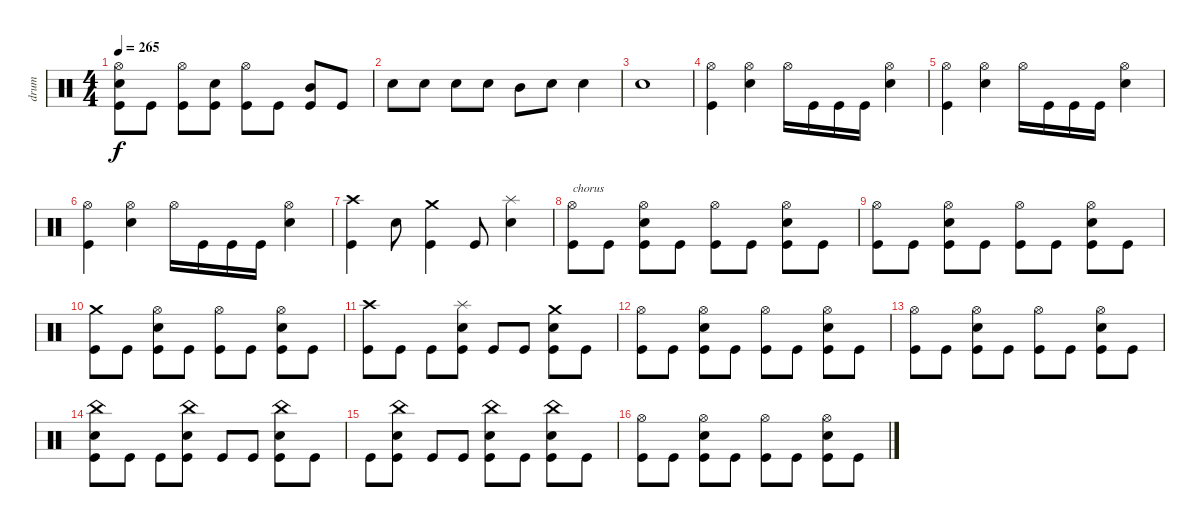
\track ("drum" "drum") {instrument percussion}
\staff {score}
\articulation defaults
\ts (4 4)
\tempo 265
\clef neutral
\ks c
("Kick (hit)" "Electric Snare (hit)" "Hi-Hat (open)").8{dy f} "Kick (hit)".8 ("Kick (hit)" "Hi-Hat (open)").8 ("Kick (hit)" "Electric Snare (hit)").8 ("Kick (hit)" "Hi-Hat (open)").8 "Kick (hit)".8 ("Kick (hit)" "Mid Tom (hit)").8 "Kick (hit)".8 |
"Electric Snare (hit)".8 "Electric Snare (hit)".8 "Electric Snare (hit)".8 "Electric Snare (hit)".8 "Mid Tom (hit)".8 "Electric Snare (hit)".8 "Electric Snare (hit)".4 |
"Electric Snare (hit)".1 |
("Kick (hit)" "Hi-Hat (open)").4 ("Electric Snare (hit)" "Hi-Hat (open)").4 "Hi-Hat (open)".16 "Kick (hit)".16 "Kick (hit)".16 "Kick (hit)".16 ("Electric Snare (hit)" "Hi-Hat (open)").4 |
("Kick (hit)" "Hi-Hat (open)").4 ("Electric Snare (hit)" "Hi-Hat (open)").4 "Hi-Hat (open)".16 "Kick (hit)".16 "Kick (hit)".16 "Kick (hit)".16 ("Electric Snare (hit)" "Hi-Hat (open)").4 |
("Kick (hit)" "Hi-Hat (open)").4 ("Electric Snare (hit)" "Hi-Hat (open)").4 "Hi-Hat (open)".16 "Kick (hit)".16 "Kick (hit)".16 "Kick (hit)".16 ("Electric Snare (hit)" "Hi-Hat (open)").4 |
("Kick (hit)" "Crash high (hit)").4 "Electric Snare (hit)".8 ("Kick (hit)" "Crash medium (hit)").4 "Kick (hit)".8 ("Electric Snare (hit)" "Splash (hit)").4 |
("Kick (hit)" "Hi-Hat (open)").8{txt "chorus"} "Kick (hit)".8 ("Kick (hit)" "Electric Snare (hit)" "Hi-Hat (open)").8 "Kick (hit)".8 ("Kick (hit)" "Hi-Hat (open)").8 "Kick (hit)".8 ("Kick (hit)" "Electric Snare (hit)" "Hi-Hat (open)").8 "Kick (hit)".8 |
("Kick (hit)" "Hi-Hat (open)").8 "Kick (hit)".8 ("Kick (hit)" "Electric Snare (hit)" "Hi-Hat (open)").8 "Kick (hit)".8 ("Kick (hit)" "Hi-Hat (open)").8 "Kick (hit)".8 ("Kick (hit)" "Electric Snare (hit)" "Hi-Hat (open)").8 "Kick (hit)".8 |
("Kick (hit)" "Crash medium (hit)").8 "Kick (hit)".8 ("Kick (hit)" "Electric Snare (hit)" "Hi-Hat (open)").8 "Kick (hit)".8 ("Kick (hit)" "Hi-Hat (open)").8 "Kick (hit)".8 ("Kick (hit)" "Electric Snare (hit)" "Hi-Hat (open)").8 "Kick (hit)".8 |
("Kick (hit)" "Crash high (hit)").8 "Kick (hit)".8 "Kick (hit)".8 ("Kick (hit)" "Electric Snare (hit)" "Splash (hit)").8 "Kick (hit)".8 "Kick (hit)".8 ("Kick (hit)" "Electric Snare (hit)" "Crash medium (hit)").8 "Kick (hit)".8 |
("Kick (hit)" "Hi-Hat (open)").8 "Kick (hit)".8 ("Kick (hit)" "Electric Snare (hit)" "Hi-Hat (open)").8 "Kick (hit)".8 ("Kick (hit)" "Hi-Hat (open)").8 "Kick (hit)".8 ("Kick (hit)" "Electric Snare (hit)" "Hi-Hat (open)").8 "Kick (hit)".8 |
("Kick (hit)" "Hi-Hat (open)").8 "Kick (hit)".8 ("Kick (hit)" "Electric Snare (hit)" "Hi-Hat (open)").8 "Kick (hit)".8 ("Kick (hit)" "Hi-Hat (open)").8 "Kick (hit)".8 ("Kick (hit)" "Electric Snare (hit)" "Hi-Hat (open)").8 "Kick (hit)".8 |
("Kick (hit)" "Electric Snare (hit)" "China (hit)").8 "Kick (hit)".8 "Kick (hit)".8 ("Kick (hit)" "Electric Snare (hit)" "China (hit)").8 "Kick (hit)".8 "Kick (hit)".8 ("Kick (hit)" "Electric Snare (hit)" "China (hit)").8 "Kick (hit)".8 |
"Kick (hit)".8 ("Kick (hit)" "Electric Snare (hit)" "China (hit)").8 "Kick (hit)".8 "Kick (hit)".8 ("Kick (hit)" "Electric Snare (hit)" "China (hit)").8 "Kick (hit)".8 ("Kick (hit)" "Electric Snare (hit)" "China (hit)").8 "Kick (hit)".8 |
("Kick (hit)" "Hi-Hat (open)").8 "Kick (hit)".8 ("Kick (hit)" "Electric Snare (hit)" "Hi-Hat (open)").8 "Kick (hit)".8 ("Kick (hit)" "Hi-Hat (open)").8 "Kick (hit)".8 ("Kick (hit)" "Electric Snare (hit)" "Hi-Hat (open)").8 "Kick (hit)".8
